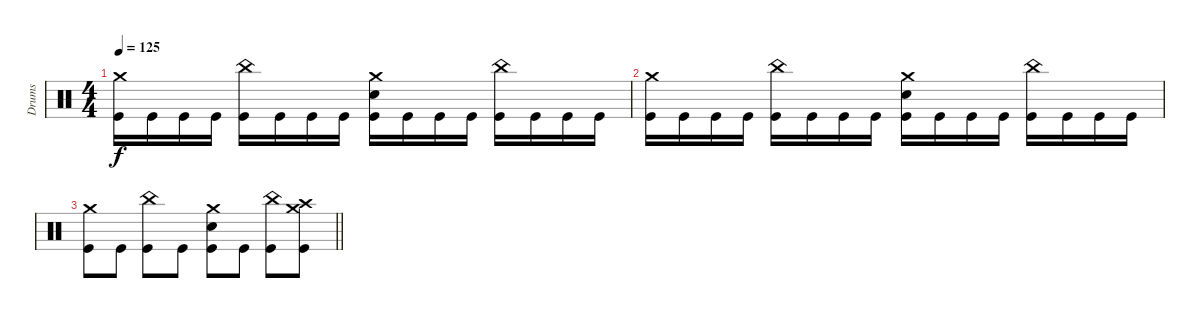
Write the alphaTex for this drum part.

\track ("Drums" "Drums") {instrument percussion}
\staff
\articulation defaults
\ts (4 4)
\tempo 125
\clef neutral
\ks c
("Crash medium (hit)" "Kick (hit)").16{dy f} "Kick (hit)".16 "Kick (hit)".16 "Kick (hit)".16 ("China (hit)" "Kick (hit)").16 "Kick (hit)".16 "Kick (hit)".16 "Kick (hit)".16 ("Crash medium (hit)" "Electric Snare (hit)" "Kick (hit)").16 "Kick (hit)".16 "Kick (hit)".16 "Kick (hit)".16 ("China (hit)" "Kick (hit)").16 "Kick (hit)".16 "Kick (hit)".16 "Kick (hit)".16 |
("Crash medium (hit)" "Kick (hit)").16 "Kick (hit)".16 "Kick (hit)".16 "Kick (hit)".16 ("China (hit)" "Kick (hit)").16 "Kick (hit)".16 "Kick (hit)".16 "Kick (hit)".16 ("Crash medium (hit)" "Electric Snare (hit)" "Kick (hit)").16 "Kick (hit)".16 "Kick (hit)".16 "Kick (hit)".16 ("China (hit)" "Kick (hit)").16 "Kick (hit)".16 "Kick (hit)".16 "Kick (hit)".16 |
\barLineRight lightlight
("Crash medium (hit)" "Kick (hit)").8 "Kick (hit)".8 ("China (hit)" "Kick (hit)").8 "Kick (hit)".8 ("Crash medium (hit)" "Electric Snare (hit)" "Kick (hit)").8 "Kick (hit)".8 ("China (hit)" "Kick (hit)").8 ("Crash high (hit)" "Crash medium (hit)" "Kick (hit)").8
